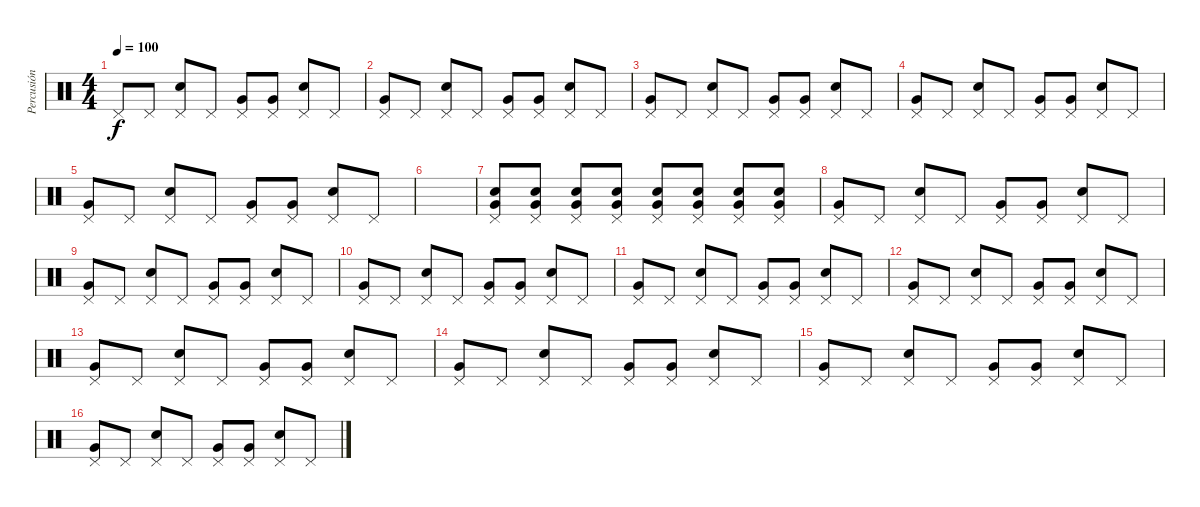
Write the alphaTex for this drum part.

\track ("Percusión" "Percusión") {instrument percussion}
\staff {score}
\articulation defaults
\ts (4 4)
\tempo 100
\clef neutral
\ks c "Pedal Hi-Hat (hit)".8{dy f} "Pedal Hi-Hat (hit)".8
("Pedal Hi-Hat (hit)" "Snare (hit) 2").8 "Pedal Hi-Hat (hit)".8 ("Pedal Hi-Hat (hit)" "Very Low Tom (hit)").8 ("Pedal Hi-Hat (hit)" "Very Low Tom (hit)").8 ("Pedal Hi-Hat (hit)" "Snare (hit) 2").8 "Pedal Hi-Hat (hit)".8 |
("Pedal Hi-Hat (hit)" "Very Low Tom (hit)").8 "Pedal Hi-Hat (hit)".8 ("Pedal Hi-Hat (hit)" "Snare (hit) 2").8 "Pedal Hi-Hat (hit)".8 ("Pedal Hi-Hat (hit)" "Very Low Tom (hit)").8 ("Pedal Hi-Hat (hit)" "Very Low Tom (hit)").8 ("Pedal Hi-Hat (hit)" "Snare (hit) 2").8 "Pedal Hi-Hat (hit)".8 |
("Pedal Hi-Hat (hit)" "Very Low Tom (hit)").8 "Pedal Hi-Hat (hit)".8 ("Pedal Hi-Hat (hit)" "Snare (hit) 2").8 "Pedal Hi-Hat (hit)".8 ("Pedal Hi-Hat (hit)" "Very Low Tom (hit)").8 ("Pedal Hi-Hat (hit)" "Very Low Tom (hit)").8 ("Pedal Hi-Hat (hit)" "Snare (hit) 2").8 "Pedal Hi-Hat (hit)".8 |
("Pedal Hi-Hat (hit)" "Very Low Tom (hit)").8 "Pedal Hi-Hat (hit)".8 ("Pedal Hi-Hat (hit)" "Snare (hit) 2").8 "Pedal Hi-Hat (hit)".8 ("Pedal Hi-Hat (hit)" "Very Low Tom (hit)").8 ("Pedal Hi-Hat (hit)" "Very Low Tom (hit)").8 ("Pedal Hi-Hat (hit)" "Snare (hit) 2").8 "Pedal Hi-Hat (hit)".8 |
("Pedal Hi-Hat (hit)" "Very Low Tom (hit)").8 "Pedal Hi-Hat (hit)".8 ("Pedal Hi-Hat (hit)" "Snare (hit) 2").8 "Pedal Hi-Hat (hit)".8 ("Pedal Hi-Hat (hit)" "Very Low Tom (hit)").8 ("Pedal Hi-Hat (hit)" "Very Low Tom (hit)").8 ("Pedal Hi-Hat (hit)" "Snare (hit) 2").8 "Pedal Hi-Hat (hit)".8 |
|
("Pedal Hi-Hat (hit)" "Snare (hit) 2" "Very Low Tom (hit)").8 ("Pedal Hi-Hat (hit)" "Snare (hit) 2" "Very Low Tom (hit)").8 ("Pedal Hi-Hat (hit)" "Snare (hit) 2" "Very Low Tom (hit)").8 ("Pedal Hi-Hat (hit)" "Snare (hit) 2" "Very Low Tom (hit)").8 ("Pedal Hi-Hat (hit)" "Snare (hit) 2" "Very Low Tom (hit)").8 ("Pedal Hi-Hat (hit)" "Snare (hit) 2" "Very Low Tom (hit)").8 ("Pedal Hi-Hat (hit)" "Snare (hit) 2" "Very Low Tom (hit)").8 ("Pedal Hi-Hat (hit)" "Snare (hit) 2" "Very Low Tom (hit)").8 |
("Pedal Hi-Hat (hit)" "Very Low Tom (hit)").8 "Pedal Hi-Hat (hit)".8 ("Pedal Hi-Hat (hit)" "Snare (hit) 2").8 "Pedal Hi-Hat (hit)".8 ("Pedal Hi-Hat (hit)" "Very Low Tom (hit)").8 ("Pedal Hi-Hat (hit)" "Very Low Tom (hit)").8 ("Pedal Hi-Hat (hit)" "Snare (hit) 2").8 "Pedal Hi-Hat (hit)".8 |
("Pedal Hi-Hat (hit)" "Very Low Tom (hit)").8 "Pedal Hi-Hat (hit)".8 ("Pedal Hi-Hat (hit)" "Snare (hit) 2").8 "Pedal Hi-Hat (hit)".8 ("Pedal Hi-Hat (hit)" "Very Low Tom (hit)").8 ("Pedal Hi-Hat (hit)" "Very Low Tom (hit)").8 ("Pedal Hi-Hat (hit)" "Snare (hit) 2").8 "Pedal Hi-Hat (hit)".8 |
("Pedal Hi-Hat (hit)" "Very Low Tom (hit)").8 "Pedal Hi-Hat (hit)".8 ("Pedal Hi-Hat (hit)" "Snare (hit) 2").8 "Pedal Hi-Hat (hit)".8 ("Pedal Hi-Hat (hit)" "Very Low Tom (hit)").8 ("Pedal Hi-Hat (hit)" "Very Low Tom (hit)").8 ("Pedal Hi-Hat (hit)" "Snare (hit) 2").8 "Pedal Hi-Hat (hit)".8 |
("Pedal Hi-Hat (hit)" "Very Low Tom (hit)").8 "Pedal Hi-Hat (hit)".8 ("Pedal Hi-Hat (hit)" "Snare (hit) 2").8 "Pedal Hi-Hat (hit)".8 ("Pedal Hi-Hat (hit)" "Very Low Tom (hit)").8 ("Pedal Hi-Hat (hit)" "Very Low Tom (hit)").8 ("Pedal Hi-Hat (hit)" "Snare (hit) 2").8 "Pedal Hi-Hat (hit)".8 |
("Pedal Hi-Hat (hit)" "Very Low Tom (hit)").8 "Pedal Hi-Hat (hit)".8 ("Pedal Hi-Hat (hit)" "Snare (hit) 2").8 "Pedal Hi-Hat (hit)".8 ("Pedal Hi-Hat (hit)" "Very Low Tom (hit)").8 ("Pedal Hi-Hat (hit)" "Very Low Tom (hit)").8 ("Pedal Hi-Hat (hit)" "Snare (hit) 2").8 "Pedal Hi-Hat (hit)".8 |
("Pedal Hi-Hat (hit)" "Very Low Tom (hit)").8 "Pedal Hi-Hat (hit)".8 ("Pedal Hi-Hat (hit)" "Snare (hit) 2").8 "Pedal Hi-Hat (hit)".8 ("Pedal Hi-Hat (hit)" "Very Low Tom (hit)").8 ("Pedal Hi-Hat (hit)" "Very Low Tom (hit)").8 ("Pedal Hi-Hat (hit)" "Snare (hit) 2").8 "Pedal Hi-Hat (hit)".8 |
("Pedal Hi-Hat (hit)" "Very Low Tom (hit)").8 "Pedal Hi-Hat (hit)".8 ("Pedal Hi-Hat (hit)" "Snare (hit) 2").8 "Pedal Hi-Hat (hit)".8 ("Pedal Hi-Hat (hit)" "Very Low Tom (hit)").8 ("Pedal Hi-Hat (hit)" "Very Low Tom (hit)").8 ("Pedal Hi-Hat (hit)" "Snare (hit) 2").8 "Pedal Hi-Hat (hit)".8 |
("Pedal Hi-Hat (hit)" "Very Low Tom (hit)").8 "Pedal Hi-Hat (hit)".8 ("Pedal Hi-Hat (hit)" "Snare (hit) 2").8 "Pedal Hi-Hat (hit)".8 ("Pedal Hi-Hat (hit)" "Very Low Tom (hit)").8 ("Pedal Hi-Hat (hit)" "Very Low Tom (hit)").8 ("Pedal Hi-Hat (hit)" "Snare (hit) 2").8 "Pedal Hi-Hat (hit)".8 |
("Pedal Hi-Hat (hit)" "Very Low Tom (hit)").8 "Pedal Hi-Hat (hit)".8 ("Pedal Hi-Hat (hit)" "Snare (hit) 2").8 "Pedal Hi-Hat (hit)".8 ("Pedal Hi-Hat (hit)" "Very Low Tom (hit)").8 ("Pedal Hi-Hat (hit)" "Very Low Tom (hit)").8 ("Pedal Hi-Hat (hit)" "Snare (hit) 2").8 "Pedal Hi-Hat (hit)".8
